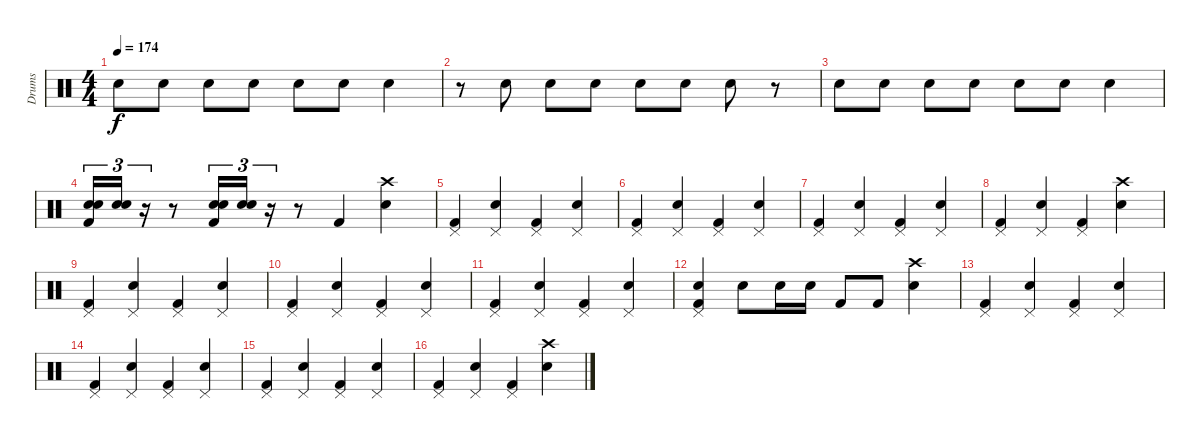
\track ("Drums" "Drums") {instrument percussion}
\staff {score}
\articulation defaults
\ts (4 4)
\tempo 174
\clef neutral
\ks c "Snare (hit) 2".8{dy f volume 4} "Snare (hit) 2".8 "Snare (hit) 2".8 "Snare (hit) 2".8 "Snare (hit) 2".8 "Snare (hit) 2".8 "Snare (hit) 2".4
|
r.8 "Snare (hit) 2".8 "Snare (hit) 2".8 "Snare (hit) 2".8 "Snare (hit) 2".8 "Snare (hit) 2".8 "Snare (hit) 2".8 r.8 |
"Snare (hit) 2".8 "Snare (hit) 2".8 "Snare (hit) 2".8 "Snare (hit) 2".8 "Snare (hit) 2".8 "Snare (hit) 2".8 "Snare (hit) 2".4 |
("Snare (hit) 2" "Snare (hit) 2" "Kick (hit) 2").16{tu (3 2) volume 15} ("Snare (hit) 2" "Snare (hit) 2").16{tu (3 2)} r.16{tu (3 2)} r.8 ("Snare (hit) 2" "Snare (hit) 2" "Kick (hit) 2").16{tu (3 2)} ("Snare (hit) 2" "Snare (hit) 2").16{tu (3 2)} r.16{tu (3 2)} r.8 "Kick (hit) 2".4 ("Crash high (hit)" "Snare (hit) 2").4 |
("Pedal Hi-Hat (hit)" "Kick (hit) 2").4 ("Pedal Hi-Hat (hit)" "Snare (hit) 2").4 ("Pedal Hi-Hat (hit)" "Kick (hit) 2").4 ("Pedal Hi-Hat (hit)" "Snare (hit) 2").4 |
("Pedal Hi-Hat (hit)" "Kick (hit) 2").4 ("Pedal Hi-Hat (hit)" "Snare (hit) 2").4 ("Pedal Hi-Hat (hit)" "Kick (hit) 2").4 ("Pedal Hi-Hat (hit)" "Snare (hit) 2").4 |
("Pedal Hi-Hat (hit)" "Kick (hit) 2").4 ("Pedal Hi-Hat (hit)" "Snare (hit) 2").4 ("Pedal Hi-Hat (hit)" "Kick (hit) 2").4 ("Pedal Hi-Hat (hit)" "Snare (hit) 2").4 |
("Pedal Hi-Hat (hit)" "Kick (hit) 2").4 ("Pedal Hi-Hat (hit)" "Snare (hit) 2").4 ("Pedal Hi-Hat (hit)" "Kick (hit) 2").4 ("Crash high (hit)" "Snare (hit) 2").4 |
("Pedal Hi-Hat (hit)" "Kick (hit) 2").4{volume 13} ("Pedal Hi-Hat (hit)" "Snare (hit) 2").4 ("Pedal Hi-Hat (hit)" "Kick (hit) 2").4 ("Pedal Hi-Hat (hit)" "Snare (hit) 2").4 |
("Pedal Hi-Hat (hit)" "Kick (hit) 2").4 ("Pedal Hi-Hat (hit)" "Snare (hit) 2").4 ("Pedal Hi-Hat (hit)" "Kick (hit) 2").4 ("Pedal Hi-Hat (hit)" "Snare (hit) 2").4 |
("Pedal Hi-Hat (hit)" "Kick (hit) 2").4 ("Pedal Hi-Hat (hit)" "Snare (hit) 2").4 ("Pedal Hi-Hat (hit)" "Kick (hit) 2").4 ("Pedal Hi-Hat (hit)" "Snare (hit) 2").4 |
("Pedal Hi-Hat (hit)" "Snare (hit) 2" "Kick (hit) 2").4 "Snare (hit) 2".8 "Snare (hit) 2".16 "Snare (hit) 2".16 "Kick (hit) 2".8 "Kick (hit) 2".8 ("Crash high (hit)" "Snare (hit) 2").4 |
("Pedal Hi-Hat (hit)" "Kick (hit) 2").4{volume 13} ("Pedal Hi-Hat (hit)" "Snare (hit) 2").4 ("Pedal Hi-Hat (hit)" "Kick (hit) 2").4 ("Pedal Hi-Hat (hit)" "Snare (hit) 2").4 |
("Pedal Hi-Hat (hit)" "Kick (hit) 2").4 ("Pedal Hi-Hat (hit)" "Snare (hit) 2").4 ("Pedal Hi-Hat (hit)" "Kick (hit) 2").4 ("Pedal Hi-Hat (hit)" "Snare (hit) 2").4 |
("Pedal Hi-Hat (hit)" "Kick (hit) 2").4 ("Pedal Hi-Hat (hit)" "Snare (hit) 2").4 ("Pedal Hi-Hat (hit)" "Kick (hit) 2").4 ("Pedal Hi-Hat (hit)" "Snare (hit) 2").4 |
("Pedal Hi-Hat (hit)" "Kick (hit) 2").4 ("Pedal Hi-Hat (hit)" "Snare (hit) 2").4 ("Pedal Hi-Hat (hit)" "Kick (hit) 2").4 ("Crash high (hit)" "Snare (hit) 2").4
